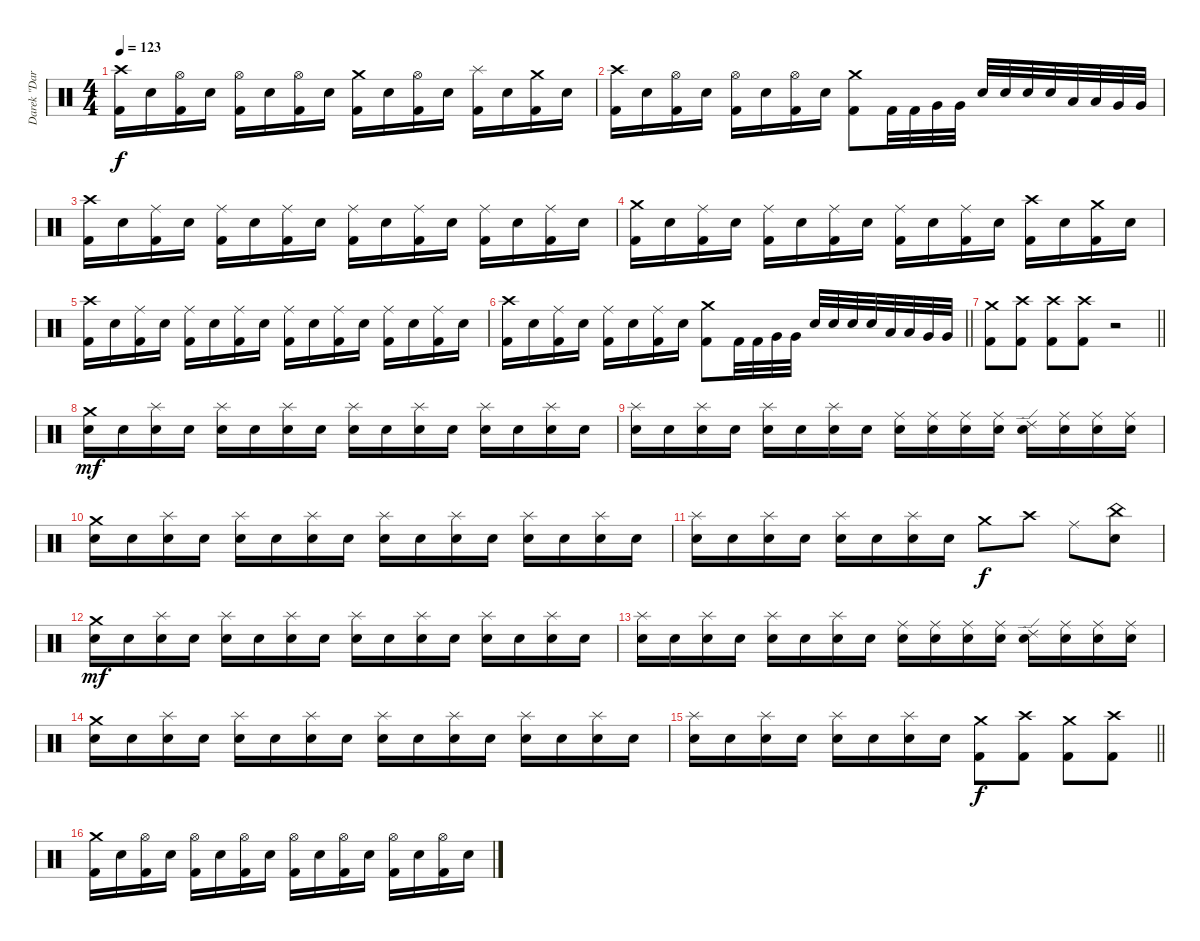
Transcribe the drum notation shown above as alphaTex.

\track ("Darek \"Daray\" Brzozowski " "Darek \"Dar") {instrument percussion}
\staff {score}
\articulation defaults
\ts (4 4)
\tempo 123
\clef neutral
\ks c
("Crash high (hit)" "Kick (hit) 2").16{dy f} "Electric Snare (hit)".16 ("Hi-Hat (open)" "Kick (hit) 2").16 "Electric Snare (hit)".16 ("Hi-Hat (open)" "Kick (hit) 2").16 "Electric Snare (hit)".16 ("Hi-Hat (open)" "Kick (hit) 2").16 "Electric Snare (hit)".16 ("Crash medium (hit)" "Kick (hit) 2").16 "Electric Snare (hit)".16 ("Hi-Hat (open)" "Kick (hit) 2").16 "Electric Snare (hit)".16 ("Splash (hit)" "Kick (hit) 2").16 "Electric Snare (hit)".16 ("Crash medium (hit)" "Kick (hit) 2").16 "Electric Snare (hit)".16 |
("Crash high (hit)" "Kick (hit) 2").16 "Electric Snare (hit)".16 ("Hi-Hat (open)" "Kick (hit) 2").16 "Electric Snare (hit)".16 ("Hi-Hat (open)" "Kick (hit) 2").16 "Electric Snare (hit)".16 ("Hi-Hat (open)" "Kick (hit) 2").16 "Electric Snare (hit)".16 ("Crash medium (hit)" "Kick (hit) 2").8 "Kick (hit) 2".32 "Kick (hit) 2".32 "Very Low Tom (hit)".32 "Very Low Tom (hit)".32 "Electric Snare (hit)".32 "Electric Snare (hit)".32 "Electric Snare (hit)".32 "Electric Snare (hit)".32 "Low Tom (hit)".32 "Low Tom (hit)".32 "Very Low Tom (hit)".32 "Very Low Tom (hit)".32 |
("Crash high (hit)" "Kick (hit) 2").16 "Electric Snare (hit)".16 ("Ride (middle)" "Kick (hit) 2").16 "Electric Snare (hit)".16 ("Ride (middle)" "Kick (hit) 2").16 "Electric Snare (hit)".16 ("Ride (middle)" "Kick (hit) 2").16 "Electric Snare (hit)".16 ("Ride (middle)" "Kick (hit) 2").16 "Electric Snare (hit)".16 ("Ride (middle)" "Kick (hit) 2").16 "Electric Snare (hit)".16 ("Ride (middle)" "Kick (hit) 2").16 "Electric Snare (hit)".16 ("Ride (middle)" "Kick (hit) 2").16 "Electric Snare (hit)".16 |
("Crash medium (hit)" "Kick (hit) 2").16 "Electric Snare (hit)".16 ("Ride (middle)" "Kick (hit) 2").16 "Electric Snare (hit)".16 ("Ride (middle)" "Kick (hit) 2").16 "Electric Snare (hit)".16 ("Ride (middle)" "Kick (hit) 2").16 "Electric Snare (hit)".16 ("Ride (middle)" "Kick (hit) 2").16 "Electric Snare (hit)".16 ("Ride (middle)" "Kick (hit) 2").16 "Electric Snare (hit)".16 ("Crash high (hit)" "Kick (hit) 2").16 "Electric Snare (hit)".16 ("Crash medium (hit)" "Kick (hit) 2").16 "Electric Snare (hit)".16 |
("Crash high (hit)" "Kick (hit) 2").16 "Electric Snare (hit)".16 ("Ride (middle)" "Kick (hit) 2").16 "Electric Snare (hit)".16 ("Ride (middle)" "Kick (hit) 2").16 "Electric Snare (hit)".16 ("Ride (middle)" "Kick (hit) 2").16 "Electric Snare (hit)".16 ("Ride (middle)" "Kick (hit) 2").16 "Electric Snare (hit)".16 ("Ride (middle)" "Kick (hit) 2").16 "Electric Snare (hit)".16 ("Ride (middle)" "Kick (hit) 2").16 "Electric Snare (hit)".16 ("Ride (middle)" "Kick (hit) 2").16 "Electric Snare (hit)".16 |
\barLineRight lightlight
("Crash high (hit)" "Kick (hit) 2").16 "Electric Snare (hit)".16 ("Ride (middle)" "Kick (hit) 2").16 "Electric Snare (hit)".16 ("Ride (middle)" "Kick (hit) 2").16 "Electric Snare (hit)".16 ("Ride (middle)" "Kick (hit) 2").16 "Electric Snare (hit)".16 ("Crash medium (hit)" "Kick (hit) 2").8 "Kick (hit) 2".32 "Kick (hit) 2".32 "Very Low Tom (hit)".32 "Very Low Tom (hit)".32 "Electric Snare (hit)".32 "Electric Snare (hit)".32 "Electric Snare (hit)".32 "Electric Snare (hit)".32 "Low Tom (hit)".32 "Low Tom (hit)".32 "Very Low Tom (hit)".32 "Very Low Tom (hit)".32 |
\barLineRight lightlight
("Crash medium (hit)" "Kick (hit) 2").8 ("Crash high (hit)" "Kick (hit) 2").8 ("Crash high (hit)" "Kick (hit) 2").8 ("Crash high (hit)" "Kick (hit) 2").8 r.2 |
("Crash medium (hit)" "Electric Snare (hit)").16{dy mf} "Electric Snare (hit)".16 ("Splash (hit)" "Electric Snare (hit)").16 "Electric Snare (hit)".16 ("Splash (hit)" "Electric Snare (hit)").16 "Electric Snare (hit)".16 ("Splash (hit)" "Electric Snare (hit)").16 "Electric Snare (hit)".16 ("Splash (hit)" "Electric Snare (hit)").16 "Electric Snare (hit)".16 ("Splash (hit)" "Electric Snare (hit)").16 "Electric Snare (hit)".16 ("Splash (hit)" "Electric Snare (hit)").16 "Electric Snare (hit)".16 ("Splash (hit)" "Electric Snare (hit)").16 "Electric Snare (hit)".16 |
("Splash (hit)" "Electric Snare (hit)").16 "Electric Snare (hit)".16 ("Splash (hit)" "Electric Snare (hit)").16 "Electric Snare (hit)".16 ("Splash (hit)" "Electric Snare (hit)").16 "Electric Snare (hit)".16 ("Splash (hit)" "Electric Snare (hit)").16 "Electric Snare (hit)".16 ("Ride (middle)" "Electric Snare (hit)").16 ("Ride (middle)" "Electric Snare (hit)").16 ("Ride (middle)" "Electric Snare (hit)").16 ("Ride (middle)" "Electric Snare (hit)").16 ("Ride (edge) 2" "Electric Snare (hit)").16 ("Ride (middle)" "Electric Snare (hit)").16 ("Ride (middle)" "Electric Snare (hit)").16 ("Ride (middle)" "Electric Snare (hit)").16 |
("Crash medium (hit)" "Electric Snare (hit)").16 "Electric Snare (hit)".16 ("Splash (hit)" "Electric Snare (hit)").16 "Electric Snare (hit)".16 ("Splash (hit)" "Electric Snare (hit)").16 "Electric Snare (hit)".16 ("Splash (hit)" "Electric Snare (hit)").16 "Electric Snare (hit)".16 ("Splash (hit)" "Electric Snare (hit)").16 "Electric Snare (hit)".16 ("Splash (hit)" "Electric Snare (hit)").16 "Electric Snare (hit)".16 ("Splash (hit)" "Electric Snare (hit)").16 "Electric Snare (hit)".16 ("Splash (hit)" "Electric Snare (hit)").16 "Electric Snare (hit)".16 |
("Splash (hit)" "Electric Snare (hit)").16 "Electric Snare (hit)".16 ("Splash (hit)" "Electric Snare (hit)").16 "Electric Snare (hit)".16 ("Splash (hit)" "Electric Snare (hit)").16 "Electric Snare (hit)".16 ("Splash (hit)" "Electric Snare (hit)").16 "Electric Snare (hit)".16 "Crash medium (hit)".8{dy f} "Crash high (hit)".8 "Ride (middle)".8 ("China (hit)" "Electric Snare (hit)").8 |
("Crash medium (hit)" "Electric Snare (hit)").16{dy mf} "Electric Snare (hit)".16 ("Splash (hit)" "Electric Snare (hit)").16 "Electric Snare (hit)".16 ("Splash (hit)" "Electric Snare (hit)").16 "Electric Snare (hit)".16 ("Splash (hit)" "Electric Snare (hit)").16 "Electric Snare (hit)".16 ("Splash (hit)" "Electric Snare (hit)").16 "Electric Snare (hit)".16 ("Splash (hit)" "Electric Snare (hit)").16 "Electric Snare (hit)".16 ("Splash (hit)" "Electric Snare (hit)").16 "Electric Snare (hit)".16 ("Splash (hit)" "Electric Snare (hit)").16 "Electric Snare (hit)".16 |
("Splash (hit)" "Electric Snare (hit)").16 "Electric Snare (hit)".16 ("Splash (hit)" "Electric Snare (hit)").16 "Electric Snare (hit)".16 ("Splash (hit)" "Electric Snare (hit)").16 "Electric Snare (hit)".16 ("Splash (hit)" "Electric Snare (hit)").16 "Electric Snare (hit)".16 ("Ride (middle)" "Electric Snare (hit)").16 ("Ride (middle)" "Electric Snare (hit)").16 ("Ride (middle)" "Electric Snare (hit)").16 ("Ride (middle)" "Electric Snare (hit)").16 ("Ride (edge) 2" "Electric Snare (hit)").16 ("Ride (middle)" "Electric Snare (hit)").16 ("Ride (middle)" "Electric Snare (hit)").16 ("Ride (middle)" "Electric Snare (hit)").16 |
("Crash medium (hit)" "Electric Snare (hit)").16 "Electric Snare (hit)".16 ("Splash (hit)" "Electric Snare (hit)").16 "Electric Snare (hit)".16 ("Splash (hit)" "Electric Snare (hit)").16 "Electric Snare (hit)".16 ("Splash (hit)" "Electric Snare (hit)").16 "Electric Snare (hit)".16 ("Splash (hit)" "Electric Snare (hit)").16 "Electric Snare (hit)".16 ("Splash (hit)" "Electric Snare (hit)").16 "Electric Snare (hit)".16 ("Splash (hit)" "Electric Snare (hit)").16 "Electric Snare (hit)".16 ("Splash (hit)" "Electric Snare (hit)").16 "Electric Snare (hit)".16 |
\barLineRight lightlight
("Splash (hit)" "Electric Snare (hit)").16 "Electric Snare (hit)".16 ("Splash (hit)" "Electric Snare (hit)").16 "Electric Snare (hit)".16 ("Splash (hit)" "Electric Snare (hit)").16 "Electric Snare (hit)".16 ("Splash (hit)" "Electric Snare (hit)").16 "Electric Snare (hit)".16 ("Crash medium (hit)" "Kick (hit) 2").8{dy f} ("Crash high (hit)" "Kick (hit) 2").8 ("Crash medium (hit)" "Kick (hit) 2").8 ("Crash high (hit)" "Kick (hit) 2").8 |
("Crash medium (hit)" "Kick (hit) 2").16 "Electric Snare (hit)".16 ("Hi-Hat (open)" "Kick (hit) 2").16 "Electric Snare (hit)".16 ("Hi-Hat (open)" "Kick (hit) 2").16 "Electric Snare (hit)".16 ("Hi-Hat (open)" "Kick (hit) 2").16 "Electric Snare (hit)".16 ("Hi-Hat (open)" "Kick (hit) 2").16 "Electric Snare (hit)".16 ("Hi-Hat (open)" "Kick (hit) 2").16 "Electric Snare (hit)".16 ("Hi-Hat (open)" "Kick (hit) 2").16 "Electric Snare (hit)".16 ("Hi-Hat (open)" "Kick (hit) 2").16 "Electric Snare (hit)".16
